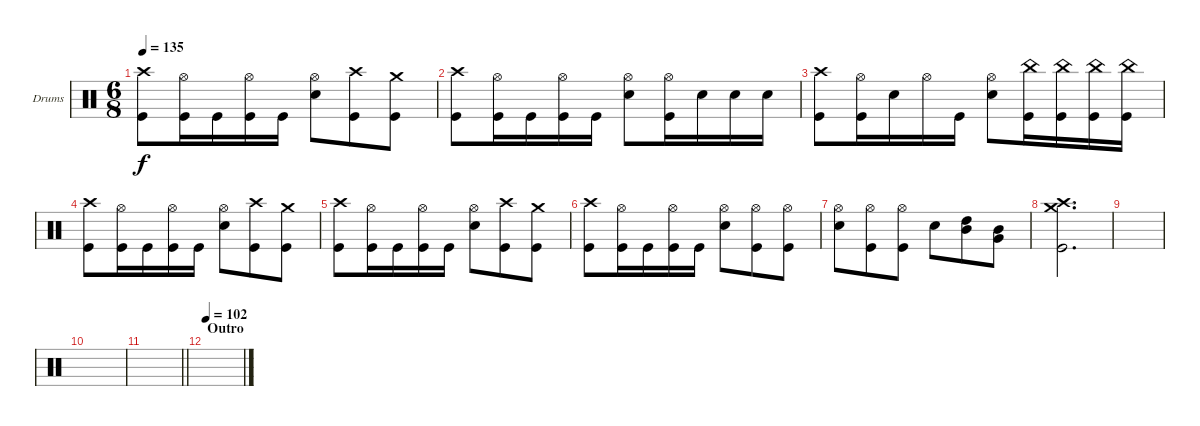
\bracketExtendMode groupsimilarinstruments
\firstSystemTrackNameOrientation horizontal
\otherSystemsTrackNameOrientation horizontal
\track ("drums (Anton Zulganov)" "Drums") {instrument percussion}
\staff {score}
\articulation defaults
\ts (6 8)
\tempo 135
\clef neutral
\ks aminor
("Kick (hit)" "Crash high (hit)").8{dy f} ("Kick (hit)" "Hi-Hat (open)").16 "Kick (hit)".16 ("Kick (hit)" "Hi-Hat (open)").16 "Kick (hit)".16 ("Snare (hit) 2" "Hi-Hat (open)").8 ("Kick (hit)" "Crash high (hit)").8 ("Kick (hit)" "Crash medium (hit)").8 |
("Kick (hit)" "Crash high (hit)").8 ("Kick (hit)" "Hi-Hat (open)").16 "Kick (hit)".16 ("Kick (hit)" "Hi-Hat (open)").16 "Kick (hit)".16 ("Snare (hit) 2" "Hi-Hat (open)").8 ("Kick (hit)" "Hi-Hat (open)").16 "Snare (hit) 2".16 "Snare (hit) 2".16 "Snare (hit) 2".16 |
("Kick (hit)" "Crash high (hit)").8 ("Kick (hit)" "Hi-Hat (open)").16 "Snare (hit) 2".16 "Hi-Hat (open)".16 "Kick (hit)".16 ("Snare (hit) 2" "Hi-Hat (open)").8 ("Kick (hit)" "China (hit)").16 ("Kick (hit)" "China (hit)").16 ("Kick (hit)" "China (hit)").16 ("Kick (hit)" "China (hit)").16 |
("Kick (hit)" "Crash high (hit)").8 ("Kick (hit)" "Hi-Hat (open)").16 "Kick (hit)".16 ("Kick (hit)" "Hi-Hat (open)").16 "Kick (hit)".16 ("Snare (hit) 2" "Hi-Hat (open)").8 ("Kick (hit)" "Crash high (hit)").8 ("Kick (hit)" "Crash medium (hit)").8 |
("Kick (hit)" "Crash high (hit)").8 ("Kick (hit)" "Hi-Hat (open)").16 "Kick (hit)".16 ("Kick (hit)" "Hi-Hat (open)").16 "Kick (hit)".16 ("Snare (hit) 2" "Hi-Hat (open)").8 ("Kick (hit)" "Crash high (hit)").8 ("Kick (hit)" "Crash medium (hit)").8 |
("Kick (hit)" "Crash high (hit)").8 ("Kick (hit)" "Hi-Hat (open)").16 "Kick (hit)".16 ("Kick (hit)" "Hi-Hat (open)").16 "Kick (hit)".16 ("Snare (hit) 2" "Hi-Hat (open)").8 ("Kick (hit)" "Hi-Hat (open)").8 ("Kick (hit)" "Hi-Hat (open)").8 |
("Snare (hit) 2" "Hi-Hat (open)").8 ("Kick (hit)" "Hi-Hat (open)").8 ("Kick (hit)" "Hi-Hat (open)").8 "Snare (hit) 2".8 ("High Tom (hit)" "Mid Tom (hit)").8 ("Mid Tom (hit)" "Very Low Tom (hit)").8 |
("Kick (hit)" "Crash high (hit)" "Crash medium (hit)").2{d} |
|
|
\barLineRight lightlight
|
\section ("" "Outro")
\tempo 102
